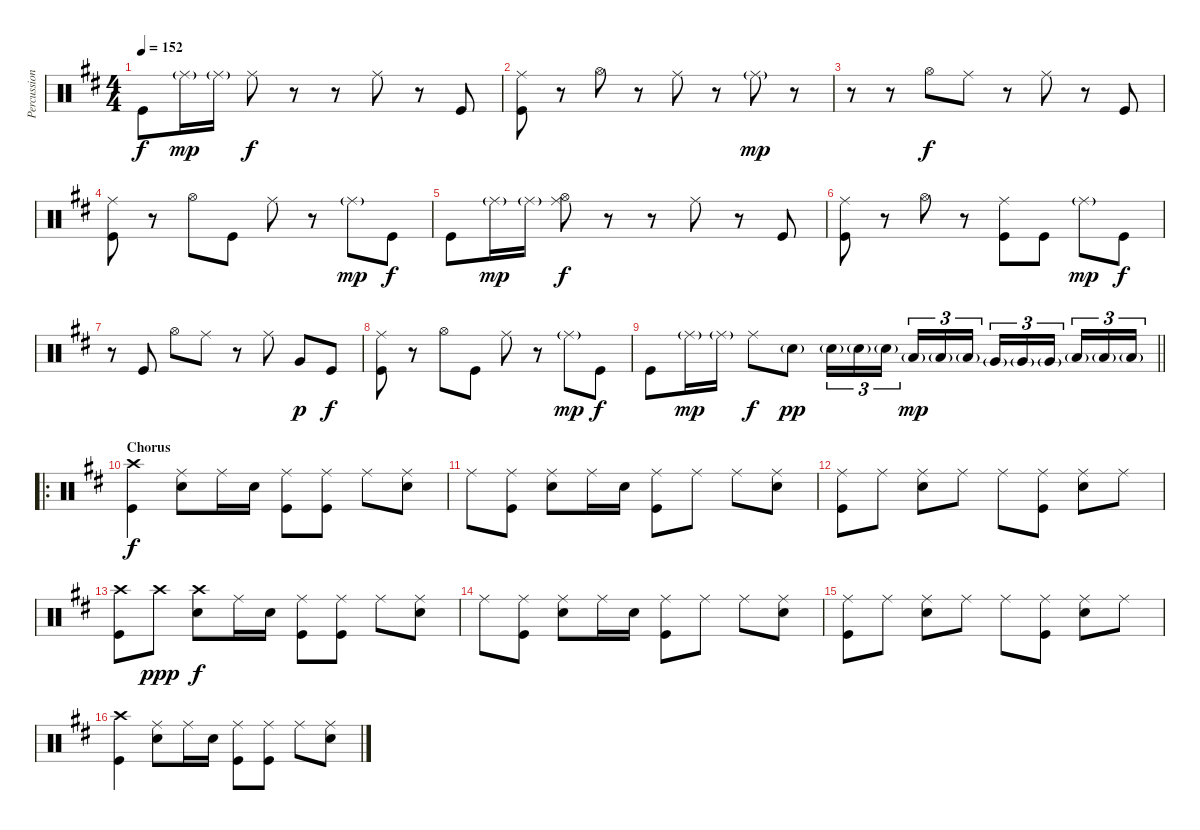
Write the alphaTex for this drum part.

\track ("Percussion" "Percussion") {instrument percussion}
\staff {score}
\articulation defaults
\ts (4 4)
\tempo 152
\clef neutral
\ks d "Kick (hit)".8{dy f} "Ride (middle)"{g}.16{dy mp} "Ride (middle)"{g}.16 "Ride (middle)".8{dy f}
r.8 r.8 "Ride (middle)".8 r.8 "Kick (hit)".8 |
("Ride (middle)" "Kick (hit)").8 r.8 "Hi-Hat (open)".8 r.8 "Ride (middle)".8 r.8 "Ride (middle)"{g}.8{dy mp} r.8 |
r.8 r.8 "Hi-Hat (open)".8{dy f} "Ride (middle)".8 r.8 "Ride (middle)".8 r.8 "Kick (hit)".8 |
("Ride (middle)" "Kick (hit)").8 r.8 "Hi-Hat (open)".8 "Kick (hit)".8 "Ride (middle)".8 r.8 "Ride (middle)"{g}.8{dy mp} "Kick (hit)".8{dy f} |
"Kick (hit)".8 "Ride (middle)"{g}.16{dy mp} "Ride (middle)"{g}.16 ("Hi-Hat (open)" "Ride (middle)").8{dy f} r.8 r.8 "Ride (middle)".8 r.8 "Kick (hit)".8 |
("Ride (middle)" "Kick (hit)").8 r.8 "Hi-Hat (open)".8 r.8 ("Ride (middle)" "Kick (hit)").8 "Kick (hit)".8 "Ride (middle)"{g}.8{dy mp} "Kick (hit)".8{dy f} |
r.8 "Kick (hit)".8 "Hi-Hat (open)".8 "Ride (middle)".8 r.8 "Ride (middle)".8 "Very Low Tom (hit)".8{dy p} "Kick (hit)".8{dy f} |
("Ride (middle)" "Kick (hit)").8 r.8 "Hi-Hat (open)".8 "Kick (hit)".8 "Ride (middle)".8 r.8 "Ride (middle)"{g}.8{dy mp} "Kick (hit)".8{dy f} |
\barLineRight lightlight "Kick (hit)".8 "Ride (middle)"{g}.16{dy mp} "Ride (middle)"{g}.16 "Ride (middle)".8{dy f} "Snare (hit) 2"{g}.8{dy pp} "Snare (hit) 2"{g}.16{tu (3 2)} "Snare (hit) 2"{g}.16{tu (3 2)} "Snare (hit) 2"{g}.16{tu (3 2)} "Low Tom (hit)"{g}.16{tu (3 2) dy mp} "Low Tom (hit)"{g}.16{tu (3 2)} "Low Tom (hit)"{g}.16{tu (3 2)} "Very Low Tom (hit)"{g}.16{tu (3 2)} "Very Low Tom (hit)"{g}.16{tu (3 2)} "Very Low Tom (hit)"{g}.16{tu (3 2)} "Low Floor Tom (hit)"{g}.16{tu (3 2)} "Low Floor Tom (hit)"{g}.16{tu (3 2)} "Low Floor Tom (hit)"{g}.16{tu (3 2)}
|
\ro
\section ("" "Chorus")
("Crash high (hit)" "Kick (hit)").4{dy f} ("Ride (middle)" "Snare (hit) 2").8 "Ride (middle)".16 "Snare (hit) 2".16 ("Ride (middle)" "Kick (hit)").8 ("Ride (middle)" "Kick (hit)").8 "Ride (middle)".8 ("Ride (middle)" "Snare (hit) 2").8 |
"Ride (middle)".8 ("Ride (middle)" "Kick (hit)").8 ("Ride (middle)" "Snare (hit) 2").8 "Ride (middle)".16 "Snare (hit) 2".16 ("Ride (middle)" "Kick (hit)").8 "Ride (middle)".8 "Ride (middle)".8 ("Ride (middle)" "Snare (hit) 2").8 |
("Ride (middle)" "Kick (hit)").8 "Ride (middle)".8 ("Ride (middle)" "Snare (hit) 2").8 "Ride (middle)".8 "Ride (middle)".8 ("Ride (middle)" "Kick (hit)").8 ("Ride (middle)" "Snare (hit) 2").8 "Ride (middle)".8 |
("Crash high (hit)" "Kick (hit)").8 "Crash high (hit)".8{dy ppp} ("Crash high (hit)" "Snare (hit) 2").8{dy f} "Ride (middle)".16 "Snare (hit) 2".16 ("Ride (middle)" "Kick (hit)").8 ("Ride (middle)" "Kick (hit)").8 "Ride (middle)".8 ("Ride (middle)" "Snare (hit) 2").8 |
"Ride (middle)".8 ("Ride (middle)" "Kick (hit)").8 ("Ride (middle)" "Snare (hit) 2").8 "Ride (middle)".16 "Snare (hit) 2".16 ("Ride (middle)" "Kick (hit)").8 "Ride (middle)".8 "Ride (middle)".8 ("Ride (middle)" "Snare (hit) 2").8 |
("Ride (middle)" "Kick (hit)").8 "Ride (middle)".8 ("Ride (middle)" "Snare (hit) 2").8 "Ride (middle)".8 "Ride (middle)".8 ("Ride (middle)" "Kick (hit)").8 ("Ride (middle)" "Snare (hit) 2").8 "Ride (middle)".8 |
("Crash high (hit)" "Kick (hit)").4 ("Ride (middle)" "Snare (hit) 2").8 "Ride (middle)".16 "Snare (hit) 2".16 ("Ride (middle)" "Kick (hit)").8 ("Ride (middle)" "Kick (hit)").8 "Ride (middle)".8 ("Ride (middle)" "Snare (hit) 2").8
